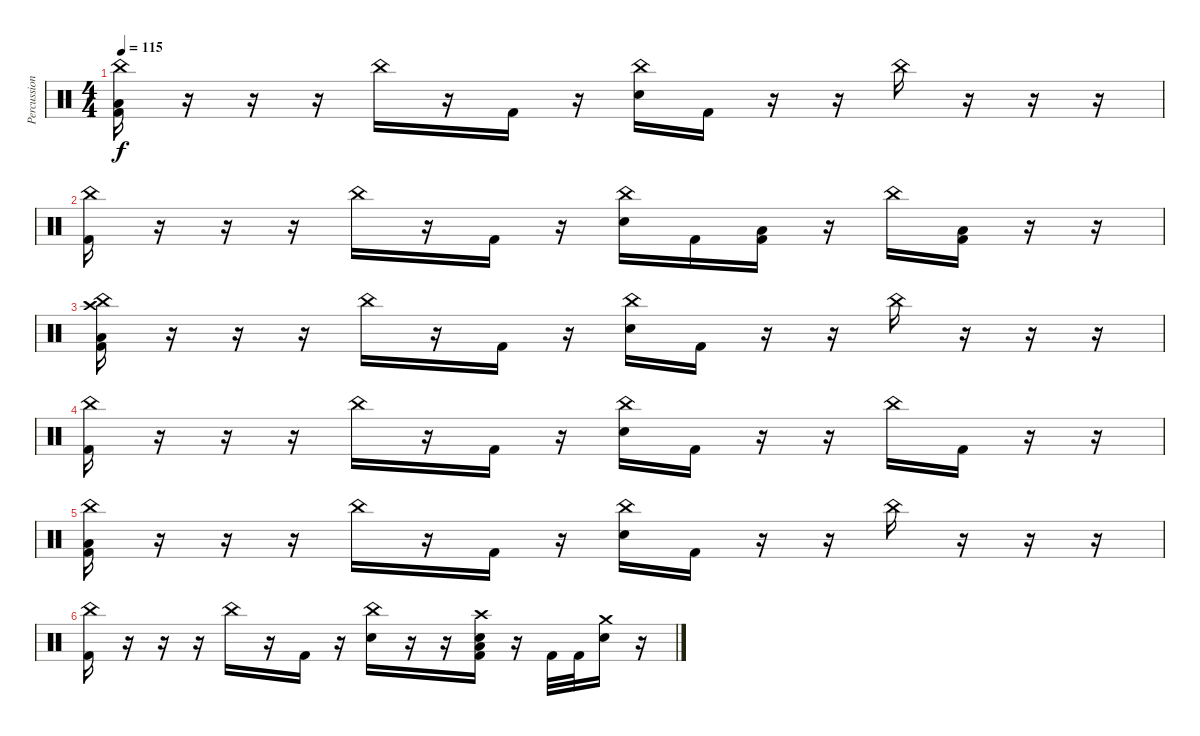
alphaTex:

\track ("Percussion" "Percussion") {instrument percussion}
\staff {score}
\articulation defaults
\ts (4 4)
\tempo 115
\clef neutral
\ks c
("China (hit)" "Low Floor Tom (hit)" "Kick (hit) 2").16{dy f} r.16 r.16 r.16 "China (hit)".16 r.16 "Kick (hit) 2".16 r.16 ("China (hit)" "Electric Snare (hit)").16 "Kick (hit) 2".16 r.16 r.16 "China (hit)".16 r.16 r.16 r.16 |
("China (hit)" "Kick (hit) 2").16 r.16 r.16 r.16 "China (hit)".16 r.16 "Kick (hit) 2".16 r.16 ("China (hit)" "Electric Snare (hit)").16 "Kick (hit) 2".16 ("Low Floor Tom (hit)" "Kick (hit) 2").16 r.16 "China (hit)".16 ("Low Floor Tom (hit)" "Kick (hit) 2").16 r.16 r.16 |
("China (hit)" "Crash high (hit)" "Low Floor Tom (hit)" "Kick (hit) 2").16 r.16 r.16 r.16 "China (hit)".16 r.16 "Kick (hit) 2".16 r.16 ("China (hit)" "Electric Snare (hit)").16 "Kick (hit) 2".16 r.16 r.16 "China (hit)".16 r.16 r.16 r.16 |
("China (hit)" "Kick (hit) 2").16 r.16 r.16 r.16 "China (hit)".16 r.16 "Kick (hit) 2".16 r.16 ("China (hit)" "Electric Snare (hit)").16 "Kick (hit) 2".16 r.16 r.16 "China (hit)".16 "Kick (hit) 2".16 r.16 r.16 |
("China (hit)" "Low Floor Tom (hit)" "Kick (hit) 2").16 r.16 r.16 r.16 "China (hit)".16 r.16 "Kick (hit) 2".16 r.16 ("China (hit)" "Electric Snare (hit)").16 "Kick (hit) 2".16 r.16 r.16 "China (hit)".16 r.16 r.16 r.16 |
("China (hit)" "Kick (hit) 2").16 r.16 r.16 r.16 "China (hit)".16 r.16 "Kick (hit) 2".16 r.16 ("China (hit)" "Electric Snare (hit)").16 r.16 r.16 ("Crash high (hit)" "Electric Snare (hit)" "Kick (hit) 2" "Low Floor Tom (hit)").16 r.16 "Kick (hit) 2".32 "Kick (hit) 2".32 ("Crash medium (hit)" "Electric Snare (hit)").16 r.16
